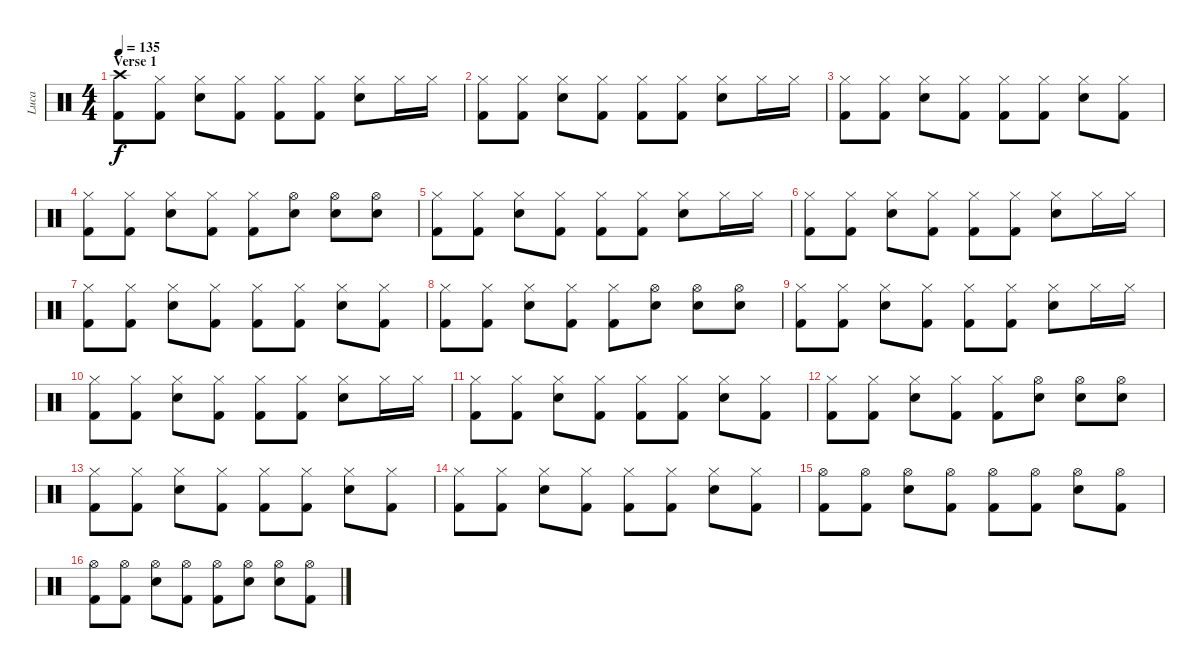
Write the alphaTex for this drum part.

\track ("Luca" "Luca") {instrument percussion}
\staff {score}
\articulation defaults
\ts (4 4)
\section ("" "Verse 1")
\tempo 135
\clef neutral
\ks c
("Crash high (hit)" "Kick (hit) 2").8{dy f} ("Hi-Hat (closed)" "Kick (hit) 2").8 ("Hi-Hat (closed)" "Snare (hit) 2").8 ("Hi-Hat (closed)" "Kick (hit) 2").8 ("Hi-Hat (closed)" "Kick (hit) 2").8 ("Hi-Hat (closed)" "Kick (hit) 2").8 ("Hi-Hat (closed)" "Snare (hit) 2").8 "Hi-Hat (closed)".16 "Hi-Hat (closed)".16 |
("Hi-Hat (closed)" "Kick (hit) 2").8 ("Hi-Hat (closed)" "Kick (hit) 2").8 ("Hi-Hat (closed)" "Snare (hit) 2").8 ("Hi-Hat (closed)" "Kick (hit) 2").8 ("Hi-Hat (closed)" "Kick (hit) 2").8 ("Hi-Hat (closed)" "Kick (hit) 2").8 ("Hi-Hat (closed)" "Snare (hit) 2").8 "Hi-Hat (closed)".16 "Hi-Hat (closed)".16 |
("Hi-Hat (closed)" "Kick (hit) 2").8 ("Hi-Hat (closed)" "Kick (hit) 2").8 ("Hi-Hat (closed)" "Snare (hit) 2").8 ("Hi-Hat (closed)" "Kick (hit) 2").8 ("Hi-Hat (closed)" "Kick (hit) 2").8 ("Hi-Hat (closed)" "Kick (hit) 2").8 ("Hi-Hat (closed)" "Snare (hit) 2").8 ("Hi-Hat (closed)" "Kick (hit) 2").8 |
("Hi-Hat (closed)" "Kick (hit) 2").8 ("Hi-Hat (closed)" "Kick (hit) 2").8 ("Hi-Hat (closed)" "Snare (hit) 2").8 ("Hi-Hat (closed)" "Kick (hit) 2").8 ("Hi-Hat (closed)" "Kick (hit) 2").8 ("Hi-Hat (open)" "Snare (hit) 2").8 ("Hi-Hat (open)" "Snare (hit) 2").8 ("Hi-Hat (open)" "Snare (hit) 2").8 |
("Hi-Hat (closed)" "Kick (hit) 2").8 ("Hi-Hat (closed)" "Kick (hit) 2").8 ("Hi-Hat (closed)" "Snare (hit) 2").8 ("Hi-Hat (closed)" "Kick (hit) 2").8 ("Hi-Hat (closed)" "Kick (hit) 2").8 ("Hi-Hat (closed)" "Kick (hit) 2").8 ("Hi-Hat (closed)" "Snare (hit) 2").8 "Hi-Hat (closed)".16 "Hi-Hat (closed)".16 |
("Hi-Hat (closed)" "Kick (hit) 2").8 ("Hi-Hat (closed)" "Kick (hit) 2").8 ("Hi-Hat (closed)" "Snare (hit) 2").8 ("Hi-Hat (closed)" "Kick (hit) 2").8 ("Hi-Hat (closed)" "Kick (hit) 2").8 ("Hi-Hat (closed)" "Kick (hit) 2").8 ("Hi-Hat (closed)" "Snare (hit) 2").8 "Hi-Hat (closed)".16 "Hi-Hat (closed)".16 |
("Hi-Hat (closed)" "Kick (hit) 2").8 ("Hi-Hat (closed)" "Kick (hit) 2").8 ("Hi-Hat (closed)" "Snare (hit) 2").8 ("Hi-Hat (closed)" "Kick (hit) 2").8 ("Hi-Hat (closed)" "Kick (hit) 2").8 ("Hi-Hat (closed)" "Kick (hit) 2").8 ("Hi-Hat (closed)" "Snare (hit) 2").8 ("Hi-Hat (closed)" "Kick (hit) 2").8 |
("Hi-Hat (closed)" "Kick (hit) 2").8 ("Hi-Hat (closed)" "Kick (hit) 2").8 ("Hi-Hat (closed)" "Snare (hit) 2").8 ("Hi-Hat (closed)" "Kick (hit) 2").8 ("Hi-Hat (closed)" "Kick (hit) 2").8 ("Hi-Hat (open)" "Snare (hit) 2").8 ("Hi-Hat (open)" "Snare (hit) 2").8 ("Hi-Hat (open)" "Snare (hit) 2").8 |
("Hi-Hat (closed)" "Kick (hit) 2").8 ("Hi-Hat (closed)" "Kick (hit) 2").8 ("Hi-Hat (closed)" "Snare (hit) 2").8 ("Hi-Hat (closed)" "Kick (hit) 2").8 ("Hi-Hat (closed)" "Kick (hit) 2").8 ("Hi-Hat (closed)" "Kick (hit) 2").8 ("Hi-Hat (closed)" "Snare (hit) 2").8 "Hi-Hat (closed)".16 "Hi-Hat (closed)".16 |
("Hi-Hat (closed)" "Kick (hit) 2").8 ("Hi-Hat (closed)" "Kick (hit) 2").8 ("Hi-Hat (closed)" "Snare (hit) 2").8 ("Hi-Hat (closed)" "Kick (hit) 2").8 ("Hi-Hat (closed)" "Kick (hit) 2").8 ("Hi-Hat (closed)" "Kick (hit) 2").8 ("Hi-Hat (closed)" "Snare (hit) 2").8 "Hi-Hat (closed)".16 "Hi-Hat (closed)".16 |
("Hi-Hat (closed)" "Kick (hit) 2").8 ("Hi-Hat (closed)" "Kick (hit) 2").8 ("Hi-Hat (closed)" "Snare (hit) 2").8 ("Hi-Hat (closed)" "Kick (hit) 2").8 ("Hi-Hat (closed)" "Kick (hit) 2").8 ("Hi-Hat (closed)" "Kick (hit) 2").8 ("Hi-Hat (closed)" "Snare (hit) 2").8 ("Hi-Hat (closed)" "Kick (hit) 2").8 |
("Hi-Hat (closed)" "Kick (hit) 2").8 ("Hi-Hat (closed)" "Kick (hit) 2").8 ("Hi-Hat (closed)" "Snare (hit) 2").8 ("Hi-Hat (closed)" "Kick (hit) 2").8 ("Hi-Hat (closed)" "Kick (hit) 2").8 ("Hi-Hat (open)" "Snare (hit) 2").8 ("Hi-Hat (open)" "Snare (hit) 2").8 ("Hi-Hat (open)" "Snare (hit) 2").8 |
("Hi-Hat (closed)" "Kick (hit) 2").8 ("Hi-Hat (closed)" "Kick (hit) 2").8 ("Hi-Hat (closed)" "Snare (hit) 2").8 ("Hi-Hat (closed)" "Kick (hit) 2").8 ("Hi-Hat (closed)" "Kick (hit) 2").8 ("Hi-Hat (closed)" "Kick (hit) 2").8 ("Hi-Hat (closed)" "Snare (hit) 2").8 ("Hi-Hat (closed)" "Kick (hit) 2").8 |
("Hi-Hat (closed)" "Kick (hit) 2").8 ("Hi-Hat (closed)" "Kick (hit) 2").8 ("Hi-Hat (closed)" "Snare (hit) 2").8 ("Hi-Hat (closed)" "Kick (hit) 2").8 ("Hi-Hat (closed)" "Kick (hit) 2").8 ("Hi-Hat (closed)" "Kick (hit) 2").8 ("Hi-Hat (closed)" "Snare (hit) 2").8 ("Hi-Hat (closed)" "Kick (hit) 2").8 |
("Hi-Hat (open)" "Kick (hit) 2").8 ("Hi-Hat (open)" "Kick (hit) 2").8 ("Hi-Hat (open)" "Snare (hit) 2").8 ("Hi-Hat (open)" "Kick (hit) 2").8 ("Hi-Hat (open)" "Kick (hit) 2").8 ("Hi-Hat (open)" "Kick (hit) 2").8 ("Hi-Hat (open)" "Snare (hit) 2").8 ("Hi-Hat (open)" "Kick (hit) 2").8 |
("Hi-Hat (open)" "Kick (hit) 2").8 ("Hi-Hat (open)" "Kick (hit) 2").8 ("Hi-Hat (open)" "Snare (hit) 2").8 ("Hi-Hat (open)" "Kick (hit) 2").8 ("Hi-Hat (open)" "Kick (hit) 2").8 ("Hi-Hat (open)" "Snare (hit) 2").8 ("Hi-Hat (open)" "Snare (hit) 2").8 ("Hi-Hat (open)" "Kick (hit) 2").8
